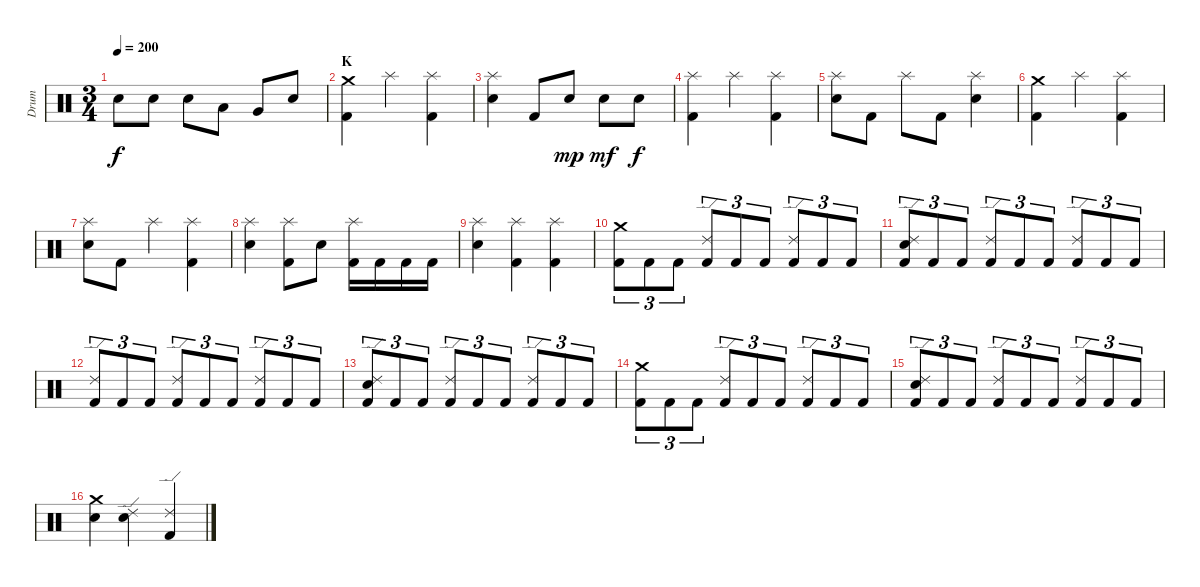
\track ("Drum" "Drum") {instrument percussion}
\staff {score}
\articulation defaults
\ts (3 4)
\tempo 200
\clef neutral
\ks c "Electric Snare (hit)".8{dy f} "Electric Snare (hit)".8 "Electric Snare (hit)".8 "Low Tom (hit)".8 "Very Low Tom (hit)".8 "Electric Snare (hit)".8
|
\section ("" "K")
("Crash medium (hit)" "Kick (hit) 2").4 "Splash (hit)".4 ("Splash (hit)" "Kick (hit) 2").4 |
("Splash (hit)" "Electric Snare (hit)").4 "Kick (hit) 2".8 "Electric Snare (hit)".8{dy mp} "Electric Snare (hit)".8{dy mf} "Electric Snare (hit)".8{dy f} |
("Splash (hit)" "Kick (hit) 2").4 "Splash (hit)".4 ("Splash (hit)" "Kick (hit) 2").4 |
("Splash (hit)" "Electric Snare (hit)").8 "Kick (hit) 2".8 "Splash (hit)".8 "Kick (hit) 2".8 ("Splash (hit)" "Electric Snare (hit)").4 |
("Crash medium (hit)" "Kick (hit) 2").4 "Splash (hit)".4 ("Splash (hit)" "Kick (hit) 2").4 |
("Splash (hit)" "Electric Snare (hit)").8 "Kick (hit) 2".8 "Splash (hit)".4 ("Splash (hit)" "Kick (hit) 2").4 |
("Splash (hit)" "Electric Snare (hit)").4 ("Splash (hit)" "Kick (hit) 2").8 "Electric Snare (hit)".8 ("Splash (hit)" "Kick (hit) 2").16 "Kick (hit) 2".16 "Kick (hit) 2".16 "Kick (hit) 2".16 |
("Splash (hit)" "Electric Snare (hit)").4 ("Splash (hit)" "Kick (hit) 2").4 ("Splash (hit)" "Kick (hit) 2").4 |
("Crash medium (hit)" "Kick (hit) 2").8{tu (3 2)} "Kick (hit) 2".8{tu (3 2)} "Kick (hit) 2".8{tu (3 2)} ("Ride (edge) 2" "Kick (hit) 2").8{tu (3 2)} "Kick (hit) 2".8{tu (3 2)} "Kick (hit) 2".8{tu (3 2)} ("Ride (edge) 2" "Kick (hit) 2").8{tu (3 2)} "Kick (hit) 2".8{tu (3 2)} "Kick (hit) 2".8{tu (3 2)} |
("Ride (edge) 2" "Electric Snare (hit)" "Kick (hit) 2").8{tu (3 2)} "Kick (hit) 2".8{tu (3 2)} "Kick (hit) 2".8{tu (3 2)} ("Ride (edge) 2" "Kick (hit) 2").8{tu (3 2)} "Kick (hit) 2".8{tu (3 2)} "Kick (hit) 2".8{tu (3 2)} ("Ride (edge) 2" "Kick (hit) 2").8{tu (3 2)} "Kick (hit) 2".8{tu (3 2)} "Kick (hit) 2".8{tu (3 2)} |
("Ride (edge) 2" "Kick (hit) 2").8{tu (3 2)} "Kick (hit) 2".8{tu (3 2)} "Kick (hit) 2".8{tu (3 2)} ("Ride (edge) 2" "Kick (hit) 2").8{tu (3 2)} "Kick (hit) 2".8{tu (3 2)} "Kick (hit) 2".8{tu (3 2)} ("Ride (edge) 2" "Kick (hit) 2").8{tu (3 2)} "Kick (hit) 2".8{tu (3 2)} "Kick (hit) 2".8{tu (3 2)} |
("Ride (edge) 2" "Electric Snare (hit)" "Kick (hit) 2").8{tu (3 2)} "Kick (hit) 2".8{tu (3 2)} "Kick (hit) 2".8{tu (3 2)} ("Ride (edge) 2" "Kick (hit) 2").8{tu (3 2)} "Kick (hit) 2".8{tu (3 2)} "Kick (hit) 2".8{tu (3 2)} ("Ride (edge) 2" "Kick (hit) 2").8{tu (3 2)} "Kick (hit) 2".8{tu (3 2)} "Kick (hit) 2".8{tu (3 2)} |
("Crash medium (hit)" "Kick (hit) 2").8{tu (3 2)} "Kick (hit) 2".8{tu (3 2)} "Kick (hit) 2".8{tu (3 2)} ("Ride (edge) 2" "Kick (hit) 2").8{tu (3 2)} "Kick (hit) 2".8{tu (3 2)} "Kick (hit) 2".8{tu (3 2)} ("Ride (edge) 2" "Kick (hit) 2").8{tu (3 2)} "Kick (hit) 2".8{tu (3 2)} "Kick (hit) 2".8{tu (3 2)} |
("Ride (edge) 2" "Electric Snare (hit)" "Kick (hit) 2").8{tu (3 2)} "Kick (hit) 2".8{tu (3 2)} "Kick (hit) 2".8{tu (3 2)} ("Ride (edge) 2" "Kick (hit) 2").8{tu (3 2)} "Kick (hit) 2".8{tu (3 2)} "Kick (hit) 2".8{tu (3 2)} ("Ride (edge) 2" "Kick (hit) 2").8{tu (3 2)} "Kick (hit) 2".8{tu (3 2)} "Kick (hit) 2".8{tu (3 2)} |
("Crash medium (hit)" "Electric Snare (hit)").4 ("Ride (edge) 2" "Electric Snare (hit)").4 ("Ride (edge) 2" "Kick (hit) 2").4
